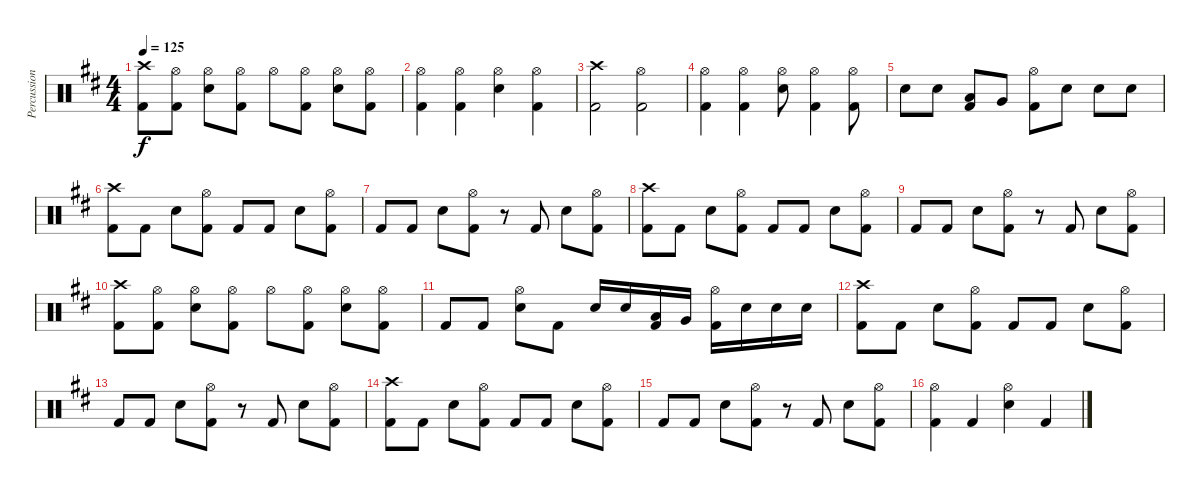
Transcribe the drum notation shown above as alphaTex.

\track ("Percussion" "Percussion") {instrument percussion}
\staff {score}
\articulation defaults
\ts (4 4)
\tempo 125
\clef neutral
\ks d
("Crash high (hit)" "Kick (hit) 2").8{dy f} ("Hi-Hat (open)" "Kick (hit) 2").8 ("Hi-Hat (open)" "Electric Snare (hit)").8 ("Hi-Hat (open)" "Kick (hit) 2").8 "Hi-Hat (open)".8 ("Hi-Hat (open)" "Kick (hit) 2").8 ("Hi-Hat (open)" "Electric Snare (hit)").8 ("Hi-Hat (open)" "Kick (hit) 2").8 |
("Hi-Hat (open)" "Kick (hit) 2").4 ("Hi-Hat (open)" "Kick (hit) 2").4 ("Hi-Hat (open)" "Electric Snare (hit)").4 ("Hi-Hat (open)" "Kick (hit) 2").4 |
("Crash high (hit)" "Kick (hit) 2").2 ("Hi-Hat (open)" "Kick (hit) 2").2 |
("Hi-Hat (open)" "Kick (hit) 2").4 ("Hi-Hat (open)" "Kick (hit) 2").4 ("Hi-Hat (open)" "Electric Snare (hit)").8 ("Hi-Hat (open)" "Kick (hit) 2").4 ("Hi-Hat (open)" "Kick (hit) 2").8 |
"Electric Snare (hit)".8 "Electric Snare (hit)".8 ("Low Tom (hit)" "Kick (hit) 2").8 "Very Low Tom (hit)".8 ("Hi-Hat (open)" "Kick (hit) 2").8 "Electric Snare (hit)".8 "Electric Snare (hit)".8 "Electric Snare (hit)".8 |
("Crash high (hit)" "Kick (hit) 2").8 "Kick (hit) 2".8 "Electric Snare (hit)".8 ("Hi-Hat (open)" "Kick (hit) 2").8 "Kick (hit) 2".8 "Kick (hit) 2".8 "Electric Snare (hit)".8 ("Hi-Hat (open)" "Kick (hit) 2").8 |
"Kick (hit) 2".8 "Kick (hit) 2".8 "Electric Snare (hit)".8 ("Hi-Hat (open)" "Kick (hit) 2").8 r.8 "Kick (hit) 2".8 "Electric Snare (hit)".8 ("Hi-Hat (open)" "Kick (hit) 2").8 |
("Crash high (hit)" "Kick (hit) 2").8 "Kick (hit) 2".8 "Electric Snare (hit)".8 ("Hi-Hat (open)" "Kick (hit) 2").8 "Kick (hit) 2".8 "Kick (hit) 2".8 "Electric Snare (hit)".8 ("Hi-Hat (open)" "Kick (hit) 2").8 |
"Kick (hit) 2".8 "Kick (hit) 2".8 "Electric Snare (hit)".8 ("Hi-Hat (open)" "Kick (hit) 2").8 r.8 "Kick (hit) 2".8 "Electric Snare (hit)".8 ("Hi-Hat (open)" "Kick (hit) 2").8 |
("Crash high (hit)" "Kick (hit) 2").8 ("Hi-Hat (open)" "Kick (hit) 2").8 ("Hi-Hat (open)" "Electric Snare (hit)").8 ("Hi-Hat (open)" "Kick (hit) 2").8 "Hi-Hat (open)".8 ("Hi-Hat (open)" "Kick (hit) 2").8 ("Hi-Hat (open)" "Electric Snare (hit)").8 ("Hi-Hat (open)" "Kick (hit) 2").8 |
"Kick (hit) 2".8 "Kick (hit) 2".8 ("Hi-Hat (open)" "Electric Snare (hit)").8 "Kick (hit) 2".8 "Electric Snare (hit)".16 "Electric Snare (hit)".16 ("Low Tom (hit)" "Kick (hit) 2").16 "Very Low Tom (hit)".16 ("Hi-Hat (open)" "Kick (hit) 2").16 "Electric Snare (hit)".16 "Electric Snare (hit)".16 "Electric Snare (hit)".16 |
("Crash high (hit)" "Kick (hit) 2").8 "Kick (hit) 2".8 "Electric Snare (hit)".8 ("Hi-Hat (open)" "Kick (hit) 2").8 "Kick (hit) 2".8 "Kick (hit) 2".8 "Electric Snare (hit)".8 ("Hi-Hat (open)" "Kick (hit) 2").8 |
"Kick (hit) 2".8 "Kick (hit) 2".8 "Electric Snare (hit)".8 ("Hi-Hat (open)" "Kick (hit) 2").8 r.8 "Kick (hit) 2".8 "Electric Snare (hit)".8 ("Hi-Hat (open)" "Kick (hit) 2").8 |
("Crash high (hit)" "Kick (hit) 2").8 "Kick (hit) 2".8 "Electric Snare (hit)".8 ("Hi-Hat (open)" "Kick (hit) 2").8 "Kick (hit) 2".8 "Kick (hit) 2".8 "Electric Snare (hit)".8 ("Hi-Hat (open)" "Kick (hit) 2").8 |
"Kick (hit) 2".8 "Kick (hit) 2".8 "Electric Snare (hit)".8 ("Hi-Hat (open)" "Kick (hit) 2").8 r.8 "Kick (hit) 2".8 "Electric Snare (hit)".8 ("Hi-Hat (open)" "Kick (hit) 2").8 |
("Hi-Hat (open)" "Kick (hit) 2").4 "Kick (hit) 2".4 ("Hi-Hat (open)" "Electric Snare (hit)").4 "Kick (hit) 2".4
